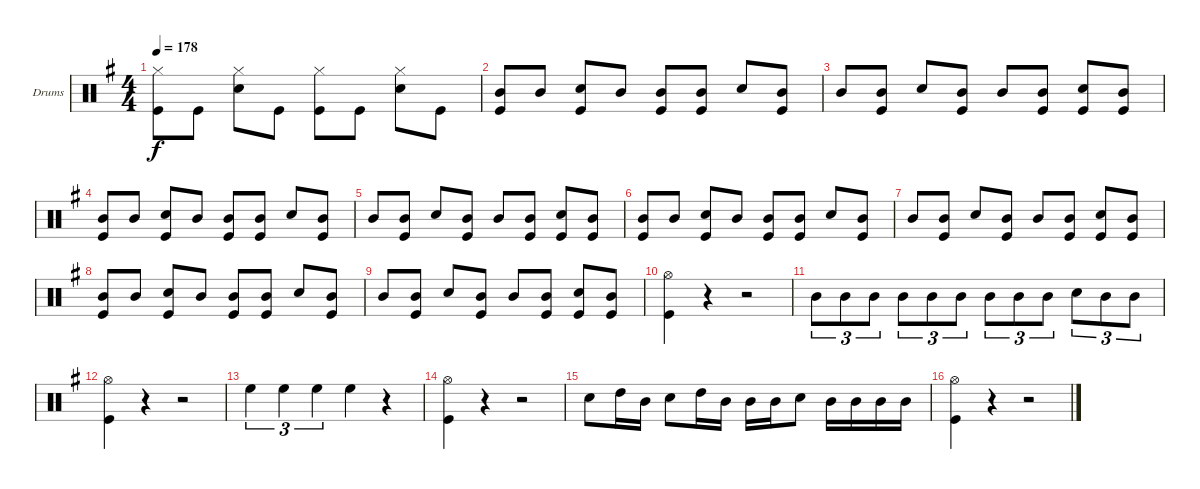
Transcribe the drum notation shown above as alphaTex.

\bracketExtendMode groupsimilarinstruments
\firstSystemTrackNameOrientation horizontal
\otherSystemsTrackNameOrientation horizontal
\track ("Drumkit" "Drums") {instrument percussion}
\staff {score}
\articulation defaults
\ts (4 4)
\tempo 178
\clef neutral
\ks eminor
("Hi-Hat (closed)" "Kick (hit)").8{dy f} "Kick (hit)".8 ("Hi-Hat (closed)" "Snare (hit) 2").8 "Kick (hit)".8 ("Hi-Hat (closed)" "Kick (hit)").8 "Kick (hit)".8 ("Hi-Hat (closed)" "Snare (hit) 2").8 "Kick (hit)".8 |
("Mid Tom (hit)" "Kick (hit)").8 "Mid Tom (hit)".8 ("Snare (hit) 2" "Kick (hit)").8 "Mid Tom (hit)".8 ("Mid Tom (hit)" "Kick (hit)").8 ("Mid Tom (hit)" "Kick (hit)").8 "Snare (hit) 2".8 ("Mid Tom (hit)" "Kick (hit)").8 |
"Mid Tom (hit)".8 ("Mid Tom (hit)" "Kick (hit)").8 "Snare (hit) 2".8 ("Mid Tom (hit)" "Kick (hit)").8 "Mid Tom (hit)".8 ("Mid Tom (hit)" "Kick (hit)").8 ("Snare (hit) 2" "Kick (hit)").8 ("Mid Tom (hit)" "Kick (hit)").8 |
("Mid Tom (hit)" "Kick (hit)").8 "Mid Tom (hit)".8 ("Snare (hit) 2" "Kick (hit)").8 "Mid Tom (hit)".8 ("Mid Tom (hit)" "Kick (hit)").8 ("Mid Tom (hit)" "Kick (hit)").8 "Snare (hit) 2".8 ("Mid Tom (hit)" "Kick (hit)").8 |
"Mid Tom (hit)".8 ("Mid Tom (hit)" "Kick (hit)").8 "Snare (hit) 2".8 ("Mid Tom (hit)" "Kick (hit)").8 "Mid Tom (hit)".8 ("Mid Tom (hit)" "Kick (hit)").8 ("Snare (hit) 2" "Kick (hit)").8 ("Mid Tom (hit)" "Kick (hit)").8 |
("Mid Tom (hit)" "Kick (hit)").8 "Mid Tom (hit)".8 ("Snare (hit) 2" "Kick (hit)").8 "Mid Tom (hit)".8 ("Mid Tom (hit)" "Kick (hit)").8 ("Mid Tom (hit)" "Kick (hit)").8 "Snare (hit) 2".8 ("Mid Tom (hit)" "Kick (hit)").8 |
"Mid Tom (hit)".8 ("Mid Tom (hit)" "Kick (hit)").8 "Snare (hit) 2".8 ("Mid Tom (hit)" "Kick (hit)").8 "Mid Tom (hit)".8 ("Mid Tom (hit)" "Kick (hit)").8 ("Snare (hit) 2" "Kick (hit)").8 ("Mid Tom (hit)" "Kick (hit)").8 |
("Mid Tom (hit)" "Kick (hit)").8 "Mid Tom (hit)".8 ("Snare (hit) 2" "Kick (hit)").8 "Mid Tom (hit)".8 ("Mid Tom (hit)" "Kick (hit)").8 ("Mid Tom (hit)" "Kick (hit)").8 "Snare (hit) 2".8 ("Mid Tom (hit)" "Kick (hit)").8 |
"Mid Tom (hit)".8 ("Mid Tom (hit)" "Kick (hit)").8 "Snare (hit) 2".8 ("Mid Tom (hit)" "Kick (hit)").8 "Mid Tom (hit)".8 ("Mid Tom (hit)" "Kick (hit)").8 ("Snare (hit) 2" "Kick (hit)").8 ("Mid Tom (hit)" "Kick (hit)").8 |
("Hi-Hat (open)" "Kick (hit)").4 r.4 r.2 |
"Mid Tom (hit)".8{tu (3 2)} "Mid Tom (hit)".8{tu (3 2)} "Mid Tom (hit)".8{tu (3 2)} "Mid Tom (hit)".8{tu (3 2)} "Mid Tom (hit)".8{tu (3 2)} "Mid Tom (hit)".8{tu (3 2)} "Mid Tom (hit)".8{tu (3 2)} "Mid Tom (hit)".8{tu (3 2)} "Mid Tom (hit)".8{tu (3 2)} "Snare (hit) 2".8{tu (3 2)} "Mid Tom (hit)".8{tu (3 2)} "Mid Tom (hit)".8{tu (3 2)} |
("Hi-Hat (open)" "Kick (hit)").4 r.4 r.2 |
"High Floor Tom (hit)".4{tu (3 2)} "High Floor Tom (hit)".4{tu (3 2)} "High Floor Tom (hit)".4{tu (3 2)} "High Floor Tom (hit)".4 r.4 |
("Hi-Hat (open)" "Kick (hit)").4 r.4 r.2 |
"Snare (hit) 2".8 "High Tom (hit)".16 "Mid Tom (hit)".16 "Snare (hit) 2".8 "High Tom (hit)".16 "Mid Tom (hit)".16 "Mid Tom (hit)".16 "Mid Tom (hit)".16 "Snare (hit) 2".8 "Mid Tom (hit)".16 "Mid Tom (hit)".16 "Mid Tom (hit)".16 "Mid Tom (hit)".16 |
("Hi-Hat (open)" "Kick (hit)").4 r.4 r.2
